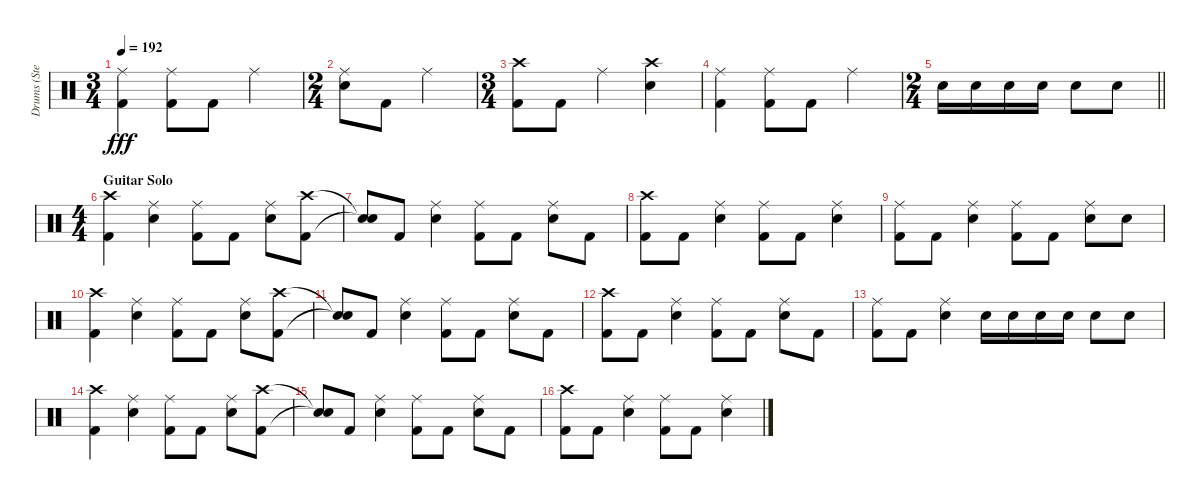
\track ("Drums (Stevo32)" "Drums (Ste") {instrument percussion}
\staff {score}
\articulation defaults
\ts (3 4)
\tempo 192
\clef neutral
\ks c
("Ride (middle)" "Kick (hit) 2").4{dy fff} ("Ride (middle)" "Kick (hit) 2").8 "Kick (hit) 2".8 "Ride (middle)".4 |
\ts (2 4)
("Ride (middle)" "Electric Snare (hit)").8 "Kick (hit) 2".8 "Ride (middle)".4 |
\ts (3 4)
("Crash high (hit)" "Kick (hit) 2").8 "Kick (hit) 2".8 "Ride (middle)".4 ("Crash high (hit)" "Electric Snare (hit)").4 |
("Ride (middle)" "Kick (hit) 2").4 ("Ride (middle)" "Kick (hit) 2").8 "Kick (hit) 2".8 "Ride (middle)".4 |
\ts (2 4)
\barLineRight lightlight "Electric Snare (hit)".16 "Electric Snare (hit)".16 "Electric Snare (hit)".16 "Electric Snare (hit)".16 "Electric Snare (hit)".8 "Electric Snare (hit)".8
|
\ts (4 4)
\section ("" "Guitar Solo")
("Crash high (hit)" "Kick (hit) 2").4 ("Ride (middle)" "Electric Snare (hit)").4 ("Ride (middle)" "Kick (hit) 2").8 "Kick (hit) 2".8 ("Ride (middle)" "Electric Snare (hit)").8 ("Crash high (hit)" "Kick (hit) 2").8 |
("Snare (hit)"{t} "Snare (hit)"{t}).8 "Kick (hit) 2".8 ("Ride (middle)" "Electric Snare (hit)").4 ("Ride (middle)" "Kick (hit) 2").8 "Kick (hit) 2".8 ("Ride (middle)" "Electric Snare (hit)").8 "Kick (hit) 2".8 |
("Crash high (hit)" "Kick (hit) 2").8 "Kick (hit) 2".8 ("Ride (middle)" "Electric Snare (hit)").4 ("Ride (middle)" "Kick (hit) 2").8 "Kick (hit) 2".8 ("Ride (middle)" "Electric Snare (hit)").4 |
("Ride (middle)" "Kick (hit) 2").8 "Kick (hit) 2".8 ("Ride (middle)" "Electric Snare (hit)").4 ("Ride (middle)" "Kick (hit) 2").8 "Kick (hit) 2".8 ("Ride (middle)" "Electric Snare (hit)").8 "Electric Snare (hit)".8 |
("Crash high (hit)" "Kick (hit) 2").4 ("Ride (middle)" "Electric Snare (hit)").4 ("Ride (middle)" "Kick (hit) 2").8 "Kick (hit) 2".8 ("Ride (middle)" "Electric Snare (hit)").8 ("Crash high (hit)" "Kick (hit) 2").8 |
("Snare (hit)"{t} "Snare (hit)"{t}).8 "Kick (hit) 2".8 ("Ride (middle)" "Electric Snare (hit)").4 ("Ride (middle)" "Kick (hit) 2").8 "Kick (hit) 2".8 ("Ride (middle)" "Electric Snare (hit)").8 "Kick (hit) 2".8 |
("Crash high (hit)" "Kick (hit) 2").8 "Kick (hit) 2".8 ("Ride (middle)" "Electric Snare (hit)").4 ("Ride (middle)" "Kick (hit) 2").8 "Kick (hit) 2".8 ("Ride (middle)" "Electric Snare (hit)").8 "Kick (hit) 2".8 |
("Ride (middle)" "Kick (hit) 2").8 "Kick (hit) 2".8 ("Ride (middle)" "Electric Snare (hit)").4 "Electric Snare (hit)".16 "Electric Snare (hit)".16 "Electric Snare (hit)".16 "Electric Snare (hit)".16 "Electric Snare (hit)".8 "Electric Snare (hit)".8 |
("Crash high (hit)" "Kick (hit) 2").4 ("Ride (middle)" "Electric Snare (hit)").4 ("Ride (middle)" "Kick (hit) 2").8 "Kick (hit) 2".8 ("Ride (middle)" "Electric Snare (hit)").8 ("Crash high (hit)" "Kick (hit) 2").8 |
("Snare (hit)"{t} "Snare (hit)"{t}).8 "Kick (hit) 2".8 ("Ride (middle)" "Electric Snare (hit)").4 ("Ride (middle)" "Kick (hit) 2").8 "Kick (hit) 2".8 ("Ride (middle)" "Electric Snare (hit)").8 "Kick (hit) 2".8 |
("Crash high (hit)" "Kick (hit) 2").8 "Kick (hit) 2".8 ("Ride (middle)" "Electric Snare (hit)").4 ("Ride (middle)" "Kick (hit) 2").8 "Kick (hit) 2".8 ("Ride (middle)" "Electric Snare (hit)").4
